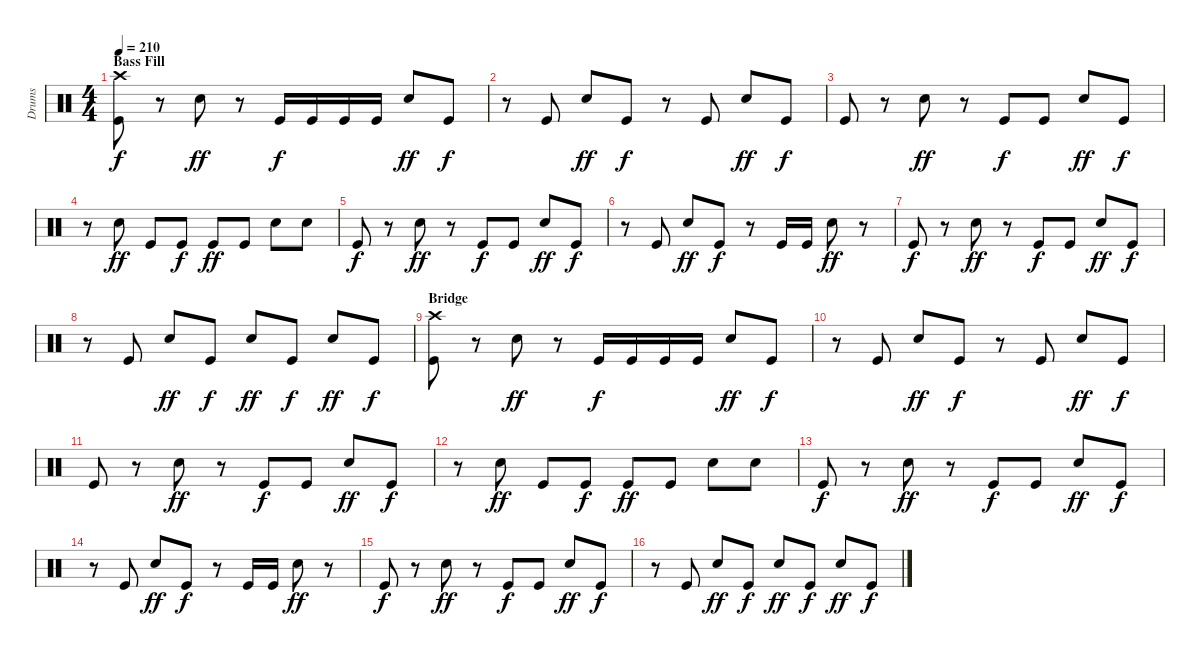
\track ("Drums" "Drums") {instrument percussion}
\staff {score}
\articulation defaults
\ts (4 4)
\section ("" "Bass Fill")
\tempo 210
\clef neutral
\ks c
("Kick (hit)" "Crash high (hit)").8{dy f} r.8 "Electric Snare (hit)".8{dy ff} r.8 "Kick (hit)".16{dy f} "Kick (hit)".16 "Kick (hit)".16 "Kick (hit)".16 "Electric Snare (hit)".8{dy ff} "Kick (hit)".8{dy f} |
r.8 "Kick (hit)".8 "Electric Snare (hit)".8{dy ff} "Kick (hit)".8{dy f} r.8 "Kick (hit)".8 "Electric Snare (hit)".8{dy ff} "Kick (hit)".8{dy f} |
"Kick (hit)".8 r.8 "Electric Snare (hit)".8{dy ff} r.8 "Kick (hit)".8{dy f} "Kick (hit)".8 "Electric Snare (hit)".8{dy ff} "Kick (hit)".8{dy f} |
r.8 "Electric Snare (hit)".8{dy ff} "Kick (hit)".8 "Kick (hit)".8{dy f} "Kick (hit)".8{dy ff} "Kick (hit)".8 "Electric Snare (hit)".8 "Electric Snare (hit)".8 |
"Kick (hit)".8{dy f} r.8 "Electric Snare (hit)".8{dy ff} r.8 "Kick (hit)".8{dy f} "Kick (hit)".8 "Electric Snare (hit)".8{dy ff} "Kick (hit)".8{dy f} |
r.8 "Kick (hit)".8 "Electric Snare (hit)".8{dy ff} "Kick (hit)".8{dy f} r.8 "Kick (hit)".16 "Kick (hit)".16 "Electric Snare (hit)".8{dy ff} r.8 |
"Kick (hit)".8{dy f} r.8 "Electric Snare (hit)".8{dy ff} r.8 "Kick (hit)".8{dy f} "Kick (hit)".8 "Electric Snare (hit)".8{dy ff} "Kick (hit)".8{dy f} |
r.8 "Kick (hit)".8 "Electric Snare (hit)".8{dy ff} "Kick (hit)".8{dy f} "Electric Snare (hit)".8{dy ff} "Kick (hit)".8{dy f} "Electric Snare (hit)".8{dy ff} "Kick (hit)".8{dy f} |
\section ("" "Bridge")
("Kick (hit)" "Crash high (hit)").8 r.8 "Electric Snare (hit)".8{dy ff} r.8 "Kick (hit)".16{dy f} "Kick (hit)".16 "Kick (hit)".16 "Kick (hit)".16 "Electric Snare (hit)".8{dy ff} "Kick (hit)".8{dy f} |
r.8 "Kick (hit)".8 "Electric Snare (hit)".8{dy ff} "Kick (hit)".8{dy f} r.8 "Kick (hit)".8 "Electric Snare (hit)".8{dy ff} "Kick (hit)".8{dy f} |
"Kick (hit)".8 r.8 "Electric Snare (hit)".8{dy ff} r.8 "Kick (hit)".8{dy f} "Kick (hit)".8 "Electric Snare (hit)".8{dy ff} "Kick (hit)".8{dy f} |
r.8 "Electric Snare (hit)".8{dy ff} "Kick (hit)".8 "Kick (hit)".8{dy f} "Kick (hit)".8{dy ff} "Kick (hit)".8 "Electric Snare (hit)".8 "Electric Snare (hit)".8 |
"Kick (hit)".8{dy f} r.8 "Electric Snare (hit)".8{dy ff} r.8 "Kick (hit)".8{dy f} "Kick (hit)".8 "Electric Snare (hit)".8{dy ff} "Kick (hit)".8{dy f} |
r.8 "Kick (hit)".8 "Electric Snare (hit)".8{dy ff} "Kick (hit)".8{dy f} r.8 "Kick (hit)".16 "Kick (hit)".16 "Electric Snare (hit)".8{dy ff} r.8 |
"Kick (hit)".8{dy f} r.8 "Electric Snare (hit)".8{dy ff} r.8 "Kick (hit)".8{dy f} "Kick (hit)".8 "Electric Snare (hit)".8{dy ff} "Kick (hit)".8{dy f} |
r.8 "Kick (hit)".8 "Electric Snare (hit)".8{dy ff} "Kick (hit)".8{dy f} "Electric Snare (hit)".8{dy ff} "Kick (hit)".8{dy f} "Electric Snare (hit)".8{dy ff} "Kick (hit)".8{dy f}
